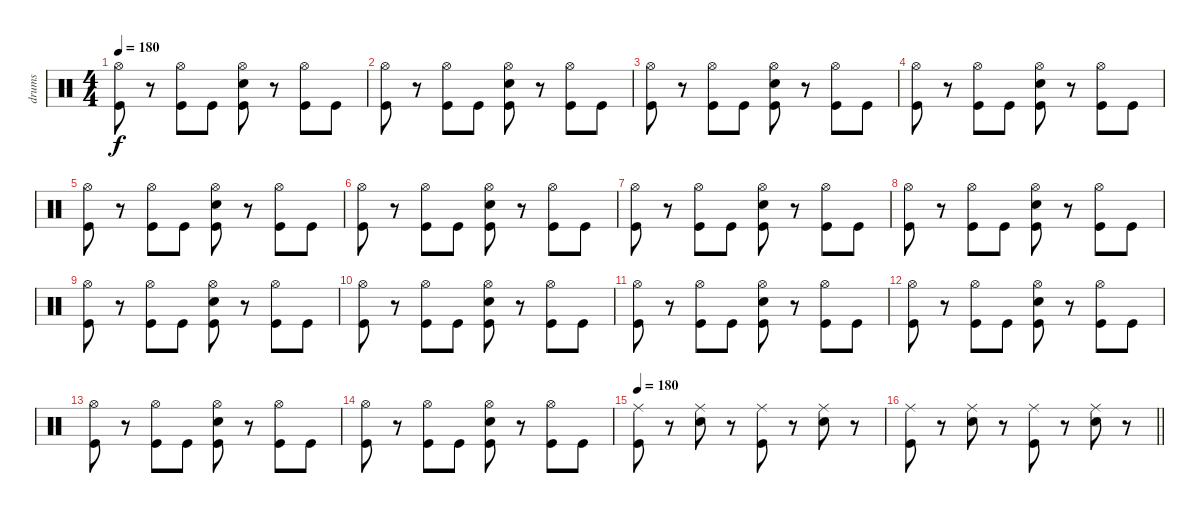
\track ("drums" "drums") {instrument percussion}
\staff {score}
\articulation defaults
\ts (4 4)
\tempo 180
\clef neutral
\ks c
("Hi-Hat (open)" "Kick (hit)").8{dy f} r.8 ("Hi-Hat (open)" "Kick (hit)").8 "Kick (hit)".8 ("Hi-Hat (open)" "Electric Snare (hit)" "Kick (hit)").8 r.8 ("Hi-Hat (open)" "Kick (hit)").8 "Kick (hit)".8 |
("Hi-Hat (open)" "Kick (hit)").8 r.8 ("Hi-Hat (open)" "Kick (hit)").8 "Kick (hit)".8 ("Hi-Hat (open)" "Electric Snare (hit)" "Kick (hit)").8 r.8 ("Hi-Hat (open)" "Kick (hit)").8 "Kick (hit)".8 |
("Hi-Hat (open)" "Kick (hit)").8 r.8 ("Hi-Hat (open)" "Kick (hit)").8 "Kick (hit)".8 ("Hi-Hat (open)" "Electric Snare (hit)" "Kick (hit)").8 r.8 ("Hi-Hat (open)" "Kick (hit)").8 "Kick (hit)".8 |
("Hi-Hat (open)" "Kick (hit)").8 r.8 ("Hi-Hat (open)" "Kick (hit)").8 "Kick (hit)".8 ("Hi-Hat (open)" "Electric Snare (hit)" "Kick (hit)").8 r.8 ("Hi-Hat (open)" "Kick (hit)").8 "Kick (hit)".8 |
("Hi-Hat (open)" "Kick (hit)").8 r.8 ("Hi-Hat (open)" "Kick (hit)").8 "Kick (hit)".8 ("Hi-Hat (open)" "Electric Snare (hit)" "Kick (hit)").8 r.8 ("Hi-Hat (open)" "Kick (hit)").8 "Kick (hit)".8 |
("Hi-Hat (open)" "Kick (hit)").8 r.8 ("Hi-Hat (open)" "Kick (hit)").8 "Kick (hit)".8 ("Hi-Hat (open)" "Electric Snare (hit)" "Kick (hit)").8 r.8 ("Hi-Hat (open)" "Kick (hit)").8 "Kick (hit)".8 |
("Hi-Hat (open)" "Kick (hit)").8 r.8 ("Hi-Hat (open)" "Kick (hit)").8 "Kick (hit)".8 ("Hi-Hat (open)" "Electric Snare (hit)" "Kick (hit)").8 r.8 ("Hi-Hat (open)" "Kick (hit)").8 "Kick (hit)".8 |
("Hi-Hat (open)" "Kick (hit)").8 r.8 ("Hi-Hat (open)" "Kick (hit)").8 "Kick (hit)".8 ("Hi-Hat (open)" "Electric Snare (hit)" "Kick (hit)").8 r.8 ("Hi-Hat (open)" "Kick (hit)").8 "Kick (hit)".8 |
("Hi-Hat (open)" "Kick (hit)").8 r.8 ("Hi-Hat (open)" "Kick (hit)").8 "Kick (hit)".8 ("Hi-Hat (open)" "Electric Snare (hit)" "Kick (hit)").8 r.8 ("Hi-Hat (open)" "Kick (hit)").8 "Kick (hit)".8 |
("Hi-Hat (open)" "Kick (hit)").8 r.8 ("Hi-Hat (open)" "Kick (hit)").8 "Kick (hit)".8 ("Hi-Hat (open)" "Electric Snare (hit)" "Kick (hit)").8 r.8 ("Hi-Hat (open)" "Kick (hit)").8 "Kick (hit)".8 |
("Hi-Hat (open)" "Kick (hit)").8 r.8 ("Hi-Hat (open)" "Kick (hit)").8 "Kick (hit)".8 ("Hi-Hat (open)" "Electric Snare (hit)" "Kick (hit)").8 r.8 ("Hi-Hat (open)" "Kick (hit)").8 "Kick (hit)".8 |
("Hi-Hat (open)" "Kick (hit)").8 r.8 ("Hi-Hat (open)" "Kick (hit)").8 "Kick (hit)".8 ("Hi-Hat (open)" "Electric Snare (hit)" "Kick (hit)").8 r.8 ("Hi-Hat (open)" "Kick (hit)").8 "Kick (hit)".8 |
("Hi-Hat (open)" "Kick (hit)").8 r.8 ("Hi-Hat (open)" "Kick (hit)").8 "Kick (hit)".8 ("Hi-Hat (open)" "Electric Snare (hit)" "Kick (hit)").8 r.8 ("Hi-Hat (open)" "Kick (hit)").8 "Kick (hit)".8 |
("Hi-Hat (open)" "Kick (hit)").8 r.8 ("Hi-Hat (open)" "Kick (hit)").8 "Kick (hit)".8 ("Hi-Hat (open)" "Electric Snare (hit)" "Kick (hit)").8 r.8 ("Hi-Hat (open)" "Kick (hit)").8 "Kick (hit)".8 |
\tempo 180
("Ride (middle)" "Kick (hit)").8 r.8 ("Ride (middle)" "Electric Snare (hit)").8 r.8 ("Ride (middle)" "Kick (hit)").8 r.8 ("Ride (middle)" "Electric Snare (hit)").8 r.8 |
\barLineRight lightlight
("Ride (middle)" "Kick (hit)").8 r.8 ("Ride (middle)" "Electric Snare (hit)").8 r.8 ("Ride (middle)" "Kick (hit)").8 r.8 ("Ride (middle)" "Electric Snare (hit)").8 r.8
